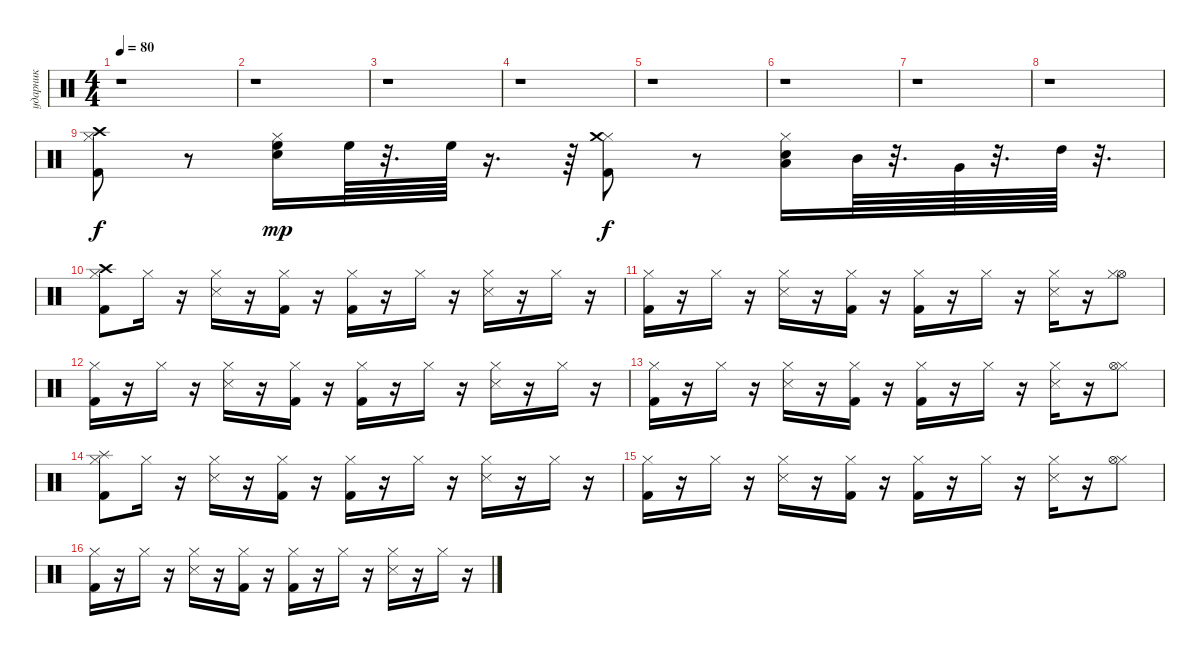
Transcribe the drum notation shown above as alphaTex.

\track ("ударник" "ударник") {instrument percussion}
\staff {score}
\articulation defaults
\ts (4 4)
\tempo 80
\clef neutral
\ks c
r.1{dy f} |
r.1 |
r.1 |
r.1 |
r.1 |
r.1 |
r.1 |
r.1 |
("Crash high (hit)" "Hi-Hat (closed)" "Kick (hit) 2").8 r.8 ("Hi-Hat (closed)" "High Floor Tom (hit)" "Snare (hit) 2").16{dy mp} "High Floor Tom (hit)".64 r.32{d} "High Floor Tom (hit)".64 r.16{d} r.64 ("Kick (hit) 2" "Hi-Hat (closed)" "Crash medium (hit)").8{dy f} r.8 ("Hi-Hat (closed)" "Low Tom (hit)" "Snare (hit) 2").16 "Mid Tom (hit)".64 r.32{d} "Very Low Tom (hit)".64 r.32{d} "High Tom (hit)".64 r.32{d} |
("Crash high (hit)" "Kick (hit) 2" "Hi-Hat (closed)").8 "Hi-Hat (closed)".16 r.16 ("Snare (side stick) 3" "Hi-Hat (closed)").16 r.16 ("Hi-Hat (closed)" "Kick (hit) 2").16 r.16 ("Kick (hit) 2" "Hi-Hat (closed)").16 r.16 "Hi-Hat (closed)".16 r.16 ("Snare (side stick) 3" "Hi-Hat (closed)").16 r.16 "Hi-Hat (closed)".16 r.16 |
("Kick (hit) 2" "Hi-Hat (closed)").16 r.16 "Hi-Hat (closed)".16 r.16 ("Hi-Hat (closed)" "Snare (side stick) 3").16 r.16 ("Kick (hit) 2" "Hi-Hat (closed)").16 r.16 ("Kick (hit) 2" "Hi-Hat (closed)").16 r.16 "Hi-Hat (closed)".16 r.16 ("Snare (side stick) 3" "Hi-Hat (closed)").16 r.16 ("Hi-Hat (open)" "Hi-Hat (closed)").8 |
("Kick (hit) 2" "Hi-Hat (closed)").16 r.16 "Hi-Hat (closed)".16 r.16 ("Snare (side stick) 3" "Hi-Hat (closed)").16 r.16 ("Kick (hit) 2" "Hi-Hat (closed)").16 r.16 ("Hi-Hat (closed)" "Kick (hit) 2").16 r.16 "Hi-Hat (closed)".16 r.16 ("Hi-Hat (closed)" "Snare (side stick) 3").16 r.16 "Hi-Hat (closed)".16 r.16 |
("Kick (hit) 2" "Hi-Hat (closed)").16 r.16 "Hi-Hat (closed)".16 r.16 ("Snare (side stick) 3" "Hi-Hat (closed)").16 r.16 ("Kick (hit) 2" "Hi-Hat (closed)").16 r.16 ("Kick (hit) 2" "Hi-Hat (closed)").16 r.16 "Hi-Hat (closed)".16 r.16 ("Hi-Hat (closed)" "Snare (side stick) 3").16 r.16 ("Hi-Hat (closed)" "Hi-Hat (open)").8 |
("Splash (hit)" "Kick (hit) 2" "Hi-Hat (closed)").8 "Hi-Hat (closed)".16 r.16 ("Hi-Hat (closed)" "Snare (side stick) 3").16 r.16 ("Hi-Hat (closed)" "Kick (hit) 2").16 r.16 ("Kick (hit) 2" "Hi-Hat (closed)").16 r.16 "Hi-Hat (closed)".16 r.16 ("Snare (side stick) 3" "Hi-Hat (closed)").16 r.16 "Hi-Hat (closed)".16 r.16 |
("Kick (hit) 2" "Hi-Hat (closed)").16 r.16 "Hi-Hat (closed)".16 r.16 ("Snare (side stick) 3" "Hi-Hat (closed)").16 r.16 ("Kick (hit) 2" "Hi-Hat (closed)").16 r.16 ("Kick (hit) 2" "Hi-Hat (closed)").16 r.16 "Hi-Hat (closed)".16 r.16 ("Hi-Hat (closed)" "Snare (side stick) 3").16 r.16 ("Hi-Hat (closed)" "Hi-Hat (open)").8 |
("Kick (hit) 2" "Hi-Hat (closed)").16 r.16 "Hi-Hat (closed)".16 r.16 ("Snare (side stick) 3" "Hi-Hat (closed)").16 r.16 ("Kick (hit) 2" "Hi-Hat (closed)").16 r.16 ("Hi-Hat (closed)" "Kick (hit) 2").16 r.16 "Hi-Hat (closed)".16 r.16 ("Snare (side stick) 3" "Hi-Hat (closed)").16 r.16 "Hi-Hat (closed)".16 r.16
